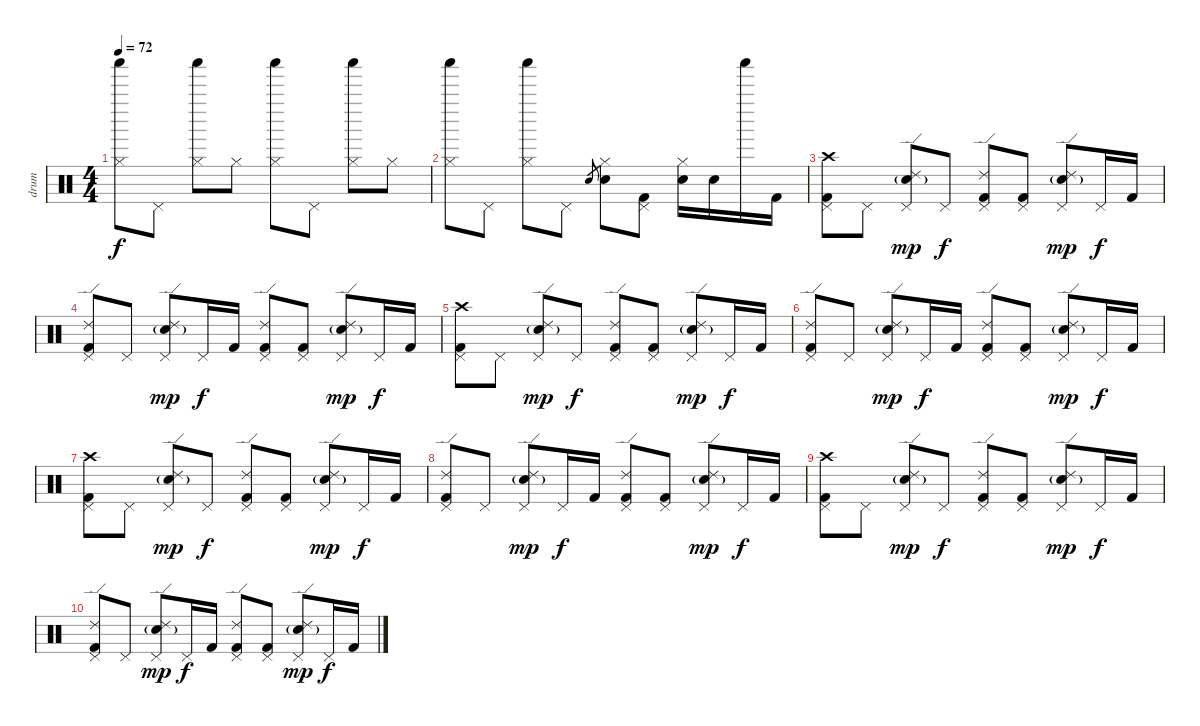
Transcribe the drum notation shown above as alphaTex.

\track ("drum" "drum") {instrument percussion}
\staff {score}
\articulation defaults
\ts (4 4)
\tempo 72
\clef neutral
\ks c
("Hi-Hat (closed)" "Shaker (hit)").8{dy f} "Pedal Hi-Hat (hit)".8 ("Hi-Hat (closed)" "Shaker (hit)").8 "Hi-Hat (closed)".8 ("Hi-Hat (closed)" "Shaker (hit)").8 "Pedal Hi-Hat (hit)".8 ("Hi-Hat (closed)" "Shaker (hit)").8 "Hi-Hat (closed)".8 |
("Hi-Hat (closed)" "Shaker (hit)").8 "Pedal Hi-Hat (hit)".8 ("Hi-Hat (closed)" "Shaker (hit)").8 "Pedal Hi-Hat (hit)".8 "Snare (hit) 2".8{gr} ("Hi-Hat (closed)" "Snare (hit) 2").8 ("Pedal Hi-Hat (hit)" "Kick (hit) 2").8 ("Hi-Hat (closed)" "Snare (hit) 2").16 "Snare (hit) 2".16 "Shaker (hit)".16 "Kick (hit) 2".16 |
("Crash high (hit)" "Kick (hit) 2" "Pedal Hi-Hat (hit)").8 "Pedal Hi-Hat (hit)".8 ("Ride (edge) 2" "Electric Snare (hit)"{g} "Pedal Hi-Hat (hit)").8{dy mp} "Pedal Hi-Hat (hit)".8{dy f} ("Ride (edge) 2" "Kick (hit) 2" "Pedal Hi-Hat (hit)").8 ("Kick (hit) 2" "Pedal Hi-Hat (hit)").8 ("Ride (edge) 2" "Electric Snare (hit)"{g} "Pedal Hi-Hat (hit)").8{dy mp} "Pedal Hi-Hat (hit)".16{dy f} "Kick (hit) 2".16 |
("Ride (edge) 2" "Kick (hit) 2" "Pedal Hi-Hat (hit)").8 "Pedal Hi-Hat (hit)".8 ("Ride (edge) 2" "Electric Snare (hit)"{g} "Pedal Hi-Hat (hit)").8{dy mp} "Pedal Hi-Hat (hit)".16{dy f} "Kick (hit) 2".16 ("Ride (edge) 2" "Kick (hit) 2" "Pedal Hi-Hat (hit)").8 ("Kick (hit) 2" "Pedal Hi-Hat (hit)").8 ("Ride (edge) 2" "Electric Snare (hit)"{g} "Pedal Hi-Hat (hit)").8{dy mp} "Pedal Hi-Hat (hit)".16{dy f} "Kick (hit) 2".16 |
("Crash high (hit)" "Kick (hit) 2" "Pedal Hi-Hat (hit)").8 "Pedal Hi-Hat (hit)".8 ("Ride (edge) 2" "Electric Snare (hit)"{g} "Pedal Hi-Hat (hit)").8{dy mp} "Pedal Hi-Hat (hit)".8{dy f} ("Ride (edge) 2" "Kick (hit) 2" "Pedal Hi-Hat (hit)").8 ("Kick (hit) 2" "Pedal Hi-Hat (hit)").8 ("Ride (edge) 2" "Electric Snare (hit)"{g} "Pedal Hi-Hat (hit)").8{dy mp} "Pedal Hi-Hat (hit)".16{dy f} "Kick (hit) 2".16 |
("Ride (edge) 2" "Kick (hit) 2" "Pedal Hi-Hat (hit)").8 "Pedal Hi-Hat (hit)".8 ("Ride (edge) 2" "Electric Snare (hit)"{g} "Pedal Hi-Hat (hit)").8{dy mp} "Pedal Hi-Hat (hit)".16{dy f} "Kick (hit) 2".16 ("Ride (edge) 2" "Kick (hit) 2" "Pedal Hi-Hat (hit)").8 ("Kick (hit) 2" "Pedal Hi-Hat (hit)").8 ("Ride (edge) 2" "Electric Snare (hit)"{g} "Pedal Hi-Hat (hit)").8{dy mp} "Pedal Hi-Hat (hit)".16{dy f} "Kick (hit) 2".16 |
("Crash high (hit)" "Kick (hit) 2" "Pedal Hi-Hat (hit)").8 "Pedal Hi-Hat (hit)".8 ("Ride (edge) 2" "Electric Snare (hit)"{g} "Pedal Hi-Hat (hit)").8{dy mp} "Pedal Hi-Hat (hit)".8{dy f} ("Ride (edge) 2" "Kick (hit) 2" "Pedal Hi-Hat (hit)").8 ("Kick (hit) 2" "Pedal Hi-Hat (hit)").8 ("Ride (edge) 2" "Electric Snare (hit)"{g} "Pedal Hi-Hat (hit)").8{dy mp} "Pedal Hi-Hat (hit)".16{dy f} "Kick (hit) 2".16 |
("Ride (edge) 2" "Kick (hit) 2" "Pedal Hi-Hat (hit)").8 "Pedal Hi-Hat (hit)".8 ("Ride (edge) 2" "Electric Snare (hit)"{g} "Pedal Hi-Hat (hit)").8{dy mp} "Pedal Hi-Hat (hit)".16{dy f} "Kick (hit) 2".16 ("Ride (edge) 2" "Kick (hit) 2" "Pedal Hi-Hat (hit)").8 ("Kick (hit) 2" "Pedal Hi-Hat (hit)").8 ("Ride (edge) 2" "Electric Snare (hit)"{g} "Pedal Hi-Hat (hit)").8{dy mp} "Pedal Hi-Hat (hit)".16{dy f} "Kick (hit) 2".16 |
("Crash high (hit)" "Kick (hit) 2" "Pedal Hi-Hat (hit)").8 "Pedal Hi-Hat (hit)".8 ("Ride (edge) 2" "Electric Snare (hit)"{g} "Pedal Hi-Hat (hit)").8{dy mp} "Pedal Hi-Hat (hit)".8{dy f} ("Ride (edge) 2" "Kick (hit) 2" "Pedal Hi-Hat (hit)").8 ("Kick (hit) 2" "Pedal Hi-Hat (hit)").8 ("Ride (edge) 2" "Electric Snare (hit)"{g} "Pedal Hi-Hat (hit)").8{dy mp} "Pedal Hi-Hat (hit)".16{dy f} "Kick (hit) 2".16 |
("Ride (edge) 2" "Kick (hit) 2" "Pedal Hi-Hat (hit)").8 "Pedal Hi-Hat (hit)".8 ("Ride (edge) 2" "Electric Snare (hit)"{g} "Pedal Hi-Hat (hit)").8{dy mp} "Pedal Hi-Hat (hit)".16{dy f} "Kick (hit) 2".16 ("Ride (edge) 2" "Kick (hit) 2" "Pedal Hi-Hat (hit)").8 ("Kick (hit) 2" "Pedal Hi-Hat (hit)").8 ("Ride (edge) 2" "Electric Snare (hit)"{g} "Pedal Hi-Hat (hit)").8{dy mp} "Pedal Hi-Hat (hit)".16{dy f} "Kick (hit) 2".16
